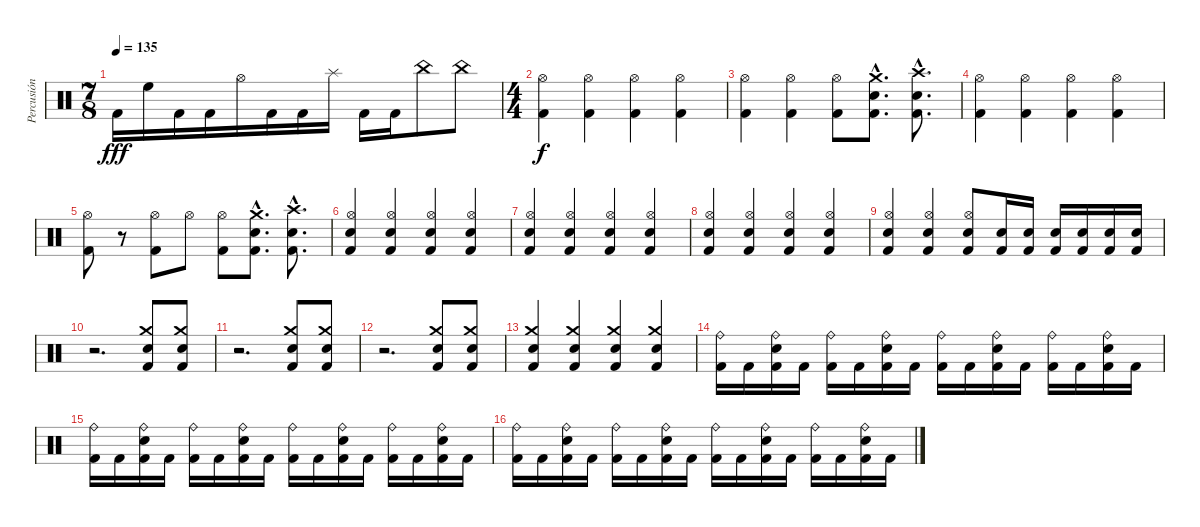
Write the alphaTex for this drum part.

\track ("Percusión" "Percusión") {instrument percussion}
\staff {score}
\articulation defaults
\ts (7 8)
\tempo 135
\clef neutral
\ks c "Kick (hit) 2".16{dy fff} "High Floor Tom (hit)".16 "Kick (hit) 2".16 "Kick (hit) 2".16 "Hi-Hat (open)".16 "Kick (hit) 2".16 "Kick (hit) 2".16 "Splash (hit)".16 "Kick (hit) 2".16 "Kick (hit) 2".16 "China (hit)".8 "China (hit)".8
|
\ts (4 4)
("Hi-Hat (open)" "Kick (hit) 2").4{dy f} ("Hi-Hat (open)" "Kick (hit) 2").4 ("Hi-Hat (open)" "Kick (hit) 2").4 ("Hi-Hat (open)" "Kick (hit) 2").4 |
("Hi-Hat (open)" "Kick (hit) 2").4 ("Hi-Hat (open)" "Kick (hit) 2").4 ("Hi-Hat (open)" "Kick (hit) 2").8 ("Crash medium (hit)"{hac} "Electric Snare (hit)"{hac} "Kick (hit) 2"{hac}).8{d} ("Crash high (hit)"{hac} "Electric Snare (hit)"{hac} "Kick (hit) 2"{hac}).8{d} |
("Hi-Hat (open)" "Kick (hit) 2").4 ("Hi-Hat (open)" "Kick (hit) 2").4 ("Hi-Hat (open)" "Kick (hit) 2").4 ("Hi-Hat (open)" "Kick (hit) 2").4 |
("Hi-Hat (open)" "Kick (hit) 2").8 r.8 ("Hi-Hat (open)" "Kick (hit) 2").8 "Hi-Hat (open)".8 ("Hi-Hat (open)" "Kick (hit) 2").8 ("Crash medium (hit)"{hac} "Electric Snare (hit)"{hac} "Kick (hit) 2"{hac}).8{d} ("Crash high (hit)"{hac} "Electric Snare (hit)"{hac} "Kick (hit) 2"{hac}).8{d} |
("Hi-Hat (open)" "Snare (hit) 2" "Kick (hit) 2").4 ("Hi-Hat (open)" "Snare (hit) 2" "Kick (hit) 2").4 ("Hi-Hat (open)" "Snare (hit) 2" "Kick (hit) 2").4 ("Hi-Hat (open)" "Snare (hit) 2" "Kick (hit) 2").4 |
("Hi-Hat (open)" "Snare (hit) 2" "Kick (hit) 2").4 ("Hi-Hat (open)" "Snare (hit) 2" "Kick (hit) 2").4 ("Hi-Hat (open)" "Snare (hit) 2" "Kick (hit) 2").4 ("Hi-Hat (open)" "Snare (hit) 2" "Kick (hit) 2").4 |
("Hi-Hat (open)" "Snare (hit) 2" "Kick (hit) 2").4 ("Hi-Hat (open)" "Snare (hit) 2" "Kick (hit) 2").4 ("Hi-Hat (open)" "Snare (hit) 2" "Kick (hit) 2").4 ("Hi-Hat (open)" "Snare (hit) 2" "Kick (hit) 2").4 |
("Hi-Hat (open)" "Snare (hit) 2" "Kick (hit) 2").4 ("Hi-Hat (open)" "Snare (hit) 2" "Kick (hit) 2").4 ("Hi-Hat (open)" "Snare (hit) 2" "Kick (hit) 2").8 ("Snare (hit) 2" "Kick (hit) 2").16 ("Snare (hit) 2" "Kick (hit) 2").16 ("Snare (hit) 2" "Kick (hit) 2").16 ("Snare (hit) 2" "Kick (hit) 2").16 ("Snare (hit) 2" "Kick (hit) 2").16 ("Snare (hit) 2" "Kick (hit) 2").16 |
r.2{d} ("Crash medium (hit)" "Snare (hit) 2" "Kick (hit) 2").8 ("Crash medium (hit)" "Snare (hit) 2" "Kick (hit) 2").8 |
r.2{d} ("Crash medium (hit)" "Snare (hit) 2" "Kick (hit) 2").8 ("Crash medium (hit)" "Snare (hit) 2" "Kick (hit) 2").8 |
r.2{d} ("Crash medium (hit)" "Snare (hit) 2" "Kick (hit) 2").8 ("Crash medium (hit)" "Snare (hit) 2" "Kick (hit) 2").8 |
("Crash medium (hit)" "Snare (hit) 2" "Kick (hit) 2").4 ("Crash medium (hit)" "Snare (hit) 2" "Kick (hit) 2").4 ("Crash medium (hit)" "Snare (hit) 2" "Kick (hit) 2").4 ("Crash medium (hit)" "Snare (hit) 2" "Kick (hit) 2").4 |
("Ride (bell)" "Kick (hit) 2").16 "Kick (hit) 2".16 ("Ride (bell)" "Snare (hit) 2" "Kick (hit) 2").16 "Kick (hit) 2".16 ("Ride (bell)" "Kick (hit) 2").16 "Kick (hit) 2".16 ("Ride (bell)" "Snare (hit) 2" "Kick (hit) 2").16 "Kick (hit) 2".16 ("Ride (bell)" "Kick (hit) 2").16 "Kick (hit) 2".16 ("Ride (bell)" "Snare (hit) 2" "Kick (hit) 2").16 "Kick (hit) 2".16 ("Ride (bell)" "Kick (hit) 2").16 "Kick (hit) 2".16 ("Ride (bell)" "Snare (hit) 2" "Kick (hit) 2").16 "Kick (hit) 2".16 |
("Ride (bell)" "Kick (hit) 2").16 "Kick (hit) 2".16 ("Ride (bell)" "Snare (hit) 2" "Kick (hit) 2").16 "Kick (hit) 2".16 ("Ride (bell)" "Kick (hit) 2").16 "Kick (hit) 2".16 ("Ride (bell)" "Snare (hit) 2" "Kick (hit) 2").16 "Kick (hit) 2".16 ("Ride (bell)" "Kick (hit) 2").16 "Kick (hit) 2".16 ("Ride (bell)" "Snare (hit) 2" "Kick (hit) 2").16 "Kick (hit) 2".16 ("Ride (bell)" "Kick (hit) 2").16 "Kick (hit) 2".16 ("Ride (bell)" "Snare (hit) 2" "Kick (hit) 2").16 "Kick (hit) 2".16 |
("Ride (bell)" "Kick (hit) 2").16 "Kick (hit) 2".16 ("Ride (bell)" "Snare (hit) 2" "Kick (hit) 2").16 "Kick (hit) 2".16 ("Ride (bell)" "Kick (hit) 2").16 "Kick (hit) 2".16 ("Ride (bell)" "Snare (hit) 2" "Kick (hit) 2").16 "Kick (hit) 2".16 ("Ride (bell)" "Kick (hit) 2").16 "Kick (hit) 2".16 ("Ride (bell)" "Snare (hit) 2" "Kick (hit) 2").16 "Kick (hit) 2".16 ("Ride (bell)" "Kick (hit) 2").16 "Kick (hit) 2".16 ("Ride (bell)" "Snare (hit) 2" "Kick (hit) 2").16 "Kick (hit) 2".16
